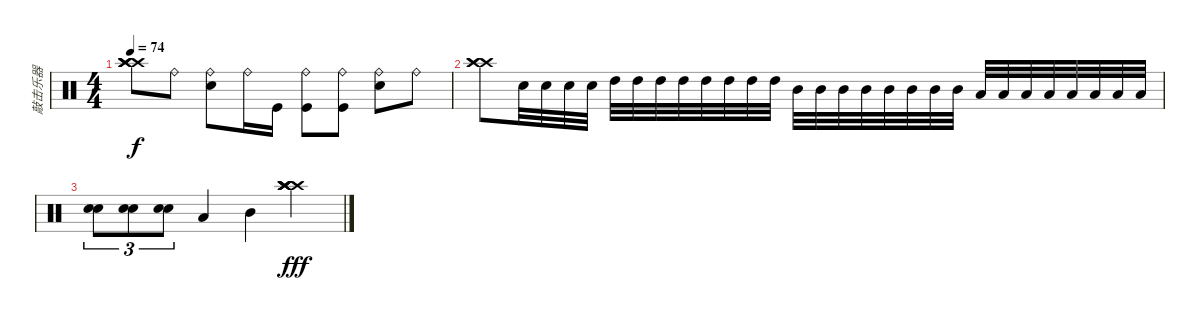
\track ("敲击乐器" "敲击乐器") {instrument percussion}
\staff {score}
\articulation defaults
\ts (4 4)
\tempo 74
\clef neutral
\ks c
("Crash high (hit)" "Crash high (hit)" "Crash high (hit)" "Crash high (hit)").8{dy f} "Ride (bell)".8 ("Ride (bell)" "Snare (hit) 2").8 "Ride (bell)".16 "Kick (hit)".16 ("Ride (bell)" "Kick (hit)").8 ("Ride (bell)" "Kick (hit)").8 ("Ride (bell)" "Snare (hit) 2").8 "Ride (bell)".8 |
("Crash high (hit)" "Crash high (hit)" "Crash high (hit)").8 "Snare (hit) 2".32 "Snare (hit) 2".32 "Snare (hit) 2".32 "Snare (hit) 2".32 "High Tom (hit)".32 "High Tom (hit)".32 "High Tom (hit)".32 "High Tom (hit)".32 "High Tom (hit)".32 "High Tom (hit)".32 "High Tom (hit)".32 "High Tom (hit)".32 "Mid Tom (hit)".32 "Mid Tom (hit)".32 "Mid Tom (hit)".32 "Mid Tom (hit)".32 "Mid Tom (hit)".32 "Mid Tom (hit)".32 "Mid Tom (hit)".32 "Mid Tom (hit)".32 "Low Tom (hit)".32 "Low Tom (hit)".32 "Low Tom (hit)".32 "Low Tom (hit)".32 "Low Tom (hit)".32 "Low Tom (hit)".32 "Low Tom (hit)".32 "Low Tom (hit)".32 |
("Snare (hit) 2" "Snare (hit) 2").8{tu (3 2)} ("Snare (hit) 2" "Snare (hit) 2").8{tu (3 2)} ("Snare (hit) 2" "Snare (hit) 2").8{tu (3 2)} "Low Tom (hit)".4 "Mid Tom (hit)".4 ("Crash high (hit)" "Crash high (hit)" "Crash high (hit)" "Crash high (hit)" "Crash high (hit)" "Crash high (hit)").4{dy fff}
